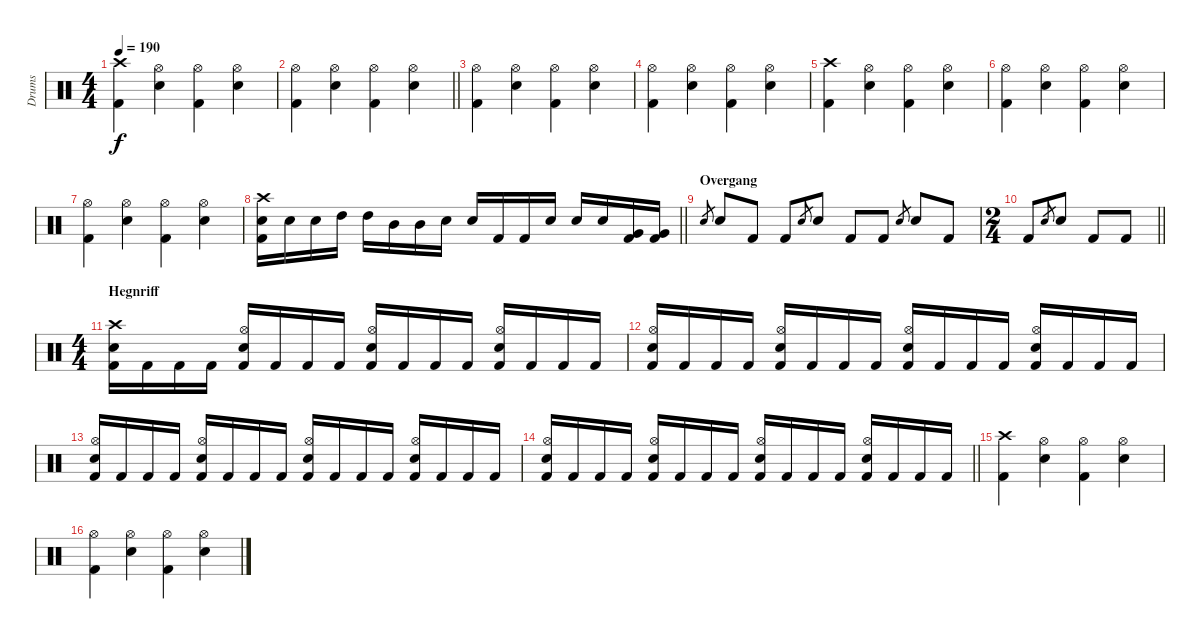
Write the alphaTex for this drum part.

\track ("Drums" "Drums") {instrument percussion}
\staff {score}
\articulation defaults
\ts (4 4)
\tempo 190
\clef neutral
\ks c
("Crash high (hit)" "Kick (hit) 2").4{dy f} ("Hi-Hat (open)" "Snare (hit) 2").4 ("Hi-Hat (open)" "Kick (hit) 2").4 ("Hi-Hat (open)" "Snare (hit) 2").4 |
\barLineRight lightlight
("Hi-Hat (open)" "Kick (hit) 2").4 ("Hi-Hat (open)" "Snare (hit) 2").4 ("Hi-Hat (open)" "Kick (hit) 2").4 ("Hi-Hat (open)" "Snare (hit) 2").4 |
("Hi-Hat (open)" "Kick (hit) 2").4 ("Hi-Hat (open)" "Snare (hit) 2").4 ("Hi-Hat (open)" "Kick (hit) 2").4 ("Hi-Hat (open)" "Snare (hit) 2").4 |
("Hi-Hat (open)" "Kick (hit) 2").4 ("Hi-Hat (open)" "Snare (hit) 2").4 ("Hi-Hat (open)" "Kick (hit) 2").4 ("Hi-Hat (open)" "Snare (hit) 2").4 |
("Crash high (hit)" "Kick (hit) 2").4 ("Hi-Hat (open)" "Snare (hit) 2").4 ("Hi-Hat (open)" "Kick (hit) 2").4 ("Hi-Hat (open)" "Snare (hit) 2").4 |
("Hi-Hat (open)" "Kick (hit) 2").4 ("Hi-Hat (open)" "Snare (hit) 2").4 ("Hi-Hat (open)" "Kick (hit) 2").4 ("Hi-Hat (open)" "Snare (hit) 2").4 |
("Hi-Hat (open)" "Kick (hit) 2").4 ("Hi-Hat (open)" "Snare (hit) 2").4 ("Hi-Hat (open)" "Kick (hit) 2").4 ("Hi-Hat (open)" "Snare (hit) 2").4 |
\barLineRight lightlight
("Crash high (hit)" "Snare (hit) 2" "Kick (hit) 2").16 "Snare (hit) 2".16 "Snare (hit) 2".16 "High Tom (hit)".16 "High Tom (hit)".16 "Mid Tom (hit)".16 "Mid Tom (hit)".16 "Snare (hit) 2".16 "Snare (hit) 2".16 "Kick (hit) 2".16 "Kick (hit) 2".16 "Snare (hit) 2".16 "Snare (hit) 2".16 "Snare (hit) 2".16 ("Very Low Tom (hit)" "Kick (hit) 2").16 ("Very Low Tom (hit)" "Kick (hit) 2").16 |
\section ("" "Overgang")
"Snare (hit) 2".8{gr} "Snare (hit) 2".8 "Kick (hit) 2".8 "Kick (hit) 2".8 "Snare (hit) 2".8{gr} "Snare (hit) 2".8 "Kick (hit) 2".8 "Kick (hit) 2".8 "Snare (hit) 2".8{gr} "Snare (hit) 2".8 "Kick (hit) 2".8 |
\ts (2 4)
\barLineRight lightlight "Kick (hit) 2".8 "Snare (hit) 2".8{gr} "Snare (hit) 2".8 "Kick (hit) 2".8 "Kick (hit) 2".8
|
\ts (4 4)
\section ("" "Hegnriff")
("Crash high (hit)" "Snare (hit) 2" "Kick (hit) 2").16 "Kick (hit) 2".16 "Kick (hit) 2".16 "Kick (hit) 2".16 ("Hi-Hat (open)" "Snare (hit) 2" "Kick (hit) 2").16 "Kick (hit) 2".16 "Kick (hit) 2".16 "Kick (hit) 2".16 ("Hi-Hat (open)" "Snare (hit) 2" "Kick (hit) 2").16 "Kick (hit) 2".16 "Kick (hit) 2".16 "Kick (hit) 2".16 ("Hi-Hat (open)" "Snare (hit) 2" "Kick (hit) 2").16 "Kick (hit) 2".16 "Kick (hit) 2".16 "Kick (hit) 2".16 |
("Hi-Hat (open)" "Snare (hit) 2" "Kick (hit) 2").16 "Kick (hit) 2".16 "Kick (hit) 2".16 "Kick (hit) 2".16 ("Hi-Hat (open)" "Snare (hit) 2" "Kick (hit) 2").16 "Kick (hit) 2".16 "Kick (hit) 2".16 "Kick (hit) 2".16 ("Hi-Hat (open)" "Snare (hit) 2" "Kick (hit) 2").16 "Kick (hit) 2".16 "Kick (hit) 2".16 "Kick (hit) 2".16 ("Hi-Hat (open)" "Snare (hit) 2" "Kick (hit) 2").16 "Kick (hit) 2".16 "Kick (hit) 2".16 "Kick (hit) 2".16 |
("Hi-Hat (open)" "Snare (hit) 2" "Kick (hit) 2").16 "Kick (hit) 2".16 "Kick (hit) 2".16 "Kick (hit) 2".16 ("Hi-Hat (open)" "Snare (hit) 2" "Kick (hit) 2").16 "Kick (hit) 2".16 "Kick (hit) 2".16 "Kick (hit) 2".16 ("Hi-Hat (open)" "Snare (hit) 2" "Kick (hit) 2").16 "Kick (hit) 2".16 "Kick (hit) 2".16 "Kick (hit) 2".16 ("Hi-Hat (open)" "Snare (hit) 2" "Kick (hit) 2").16 "Kick (hit) 2".16 "Kick (hit) 2".16 "Kick (hit) 2".16 |
\barLineRight lightlight
("Hi-Hat (open)" "Snare (hit) 2" "Kick (hit) 2").16 "Kick (hit) 2".16 "Kick (hit) 2".16 "Kick (hit) 2".16 ("Hi-Hat (open)" "Snare (hit) 2" "Kick (hit) 2").16 "Kick (hit) 2".16 "Kick (hit) 2".16 "Kick (hit) 2".16 ("Hi-Hat (open)" "Snare (hit) 2" "Kick (hit) 2").16 "Kick (hit) 2".16 "Kick (hit) 2".16 "Kick (hit) 2".16 ("Hi-Hat (open)" "Snare (hit) 2" "Kick (hit) 2").16 "Kick (hit) 2".16 "Kick (hit) 2".16 "Kick (hit) 2".16 |
("Crash high (hit)" "Kick (hit) 2").4 ("Hi-Hat (open)" "Snare (hit) 2").4 ("Hi-Hat (open)" "Kick (hit) 2").4 ("Hi-Hat (open)" "Snare (hit) 2").4 |
("Hi-Hat (open)" "Kick (hit) 2").4 ("Hi-Hat (open)" "Snare (hit) 2").4 ("Hi-Hat (open)" "Kick (hit) 2").4 ("Hi-Hat (open)" "Snare (hit) 2").4
